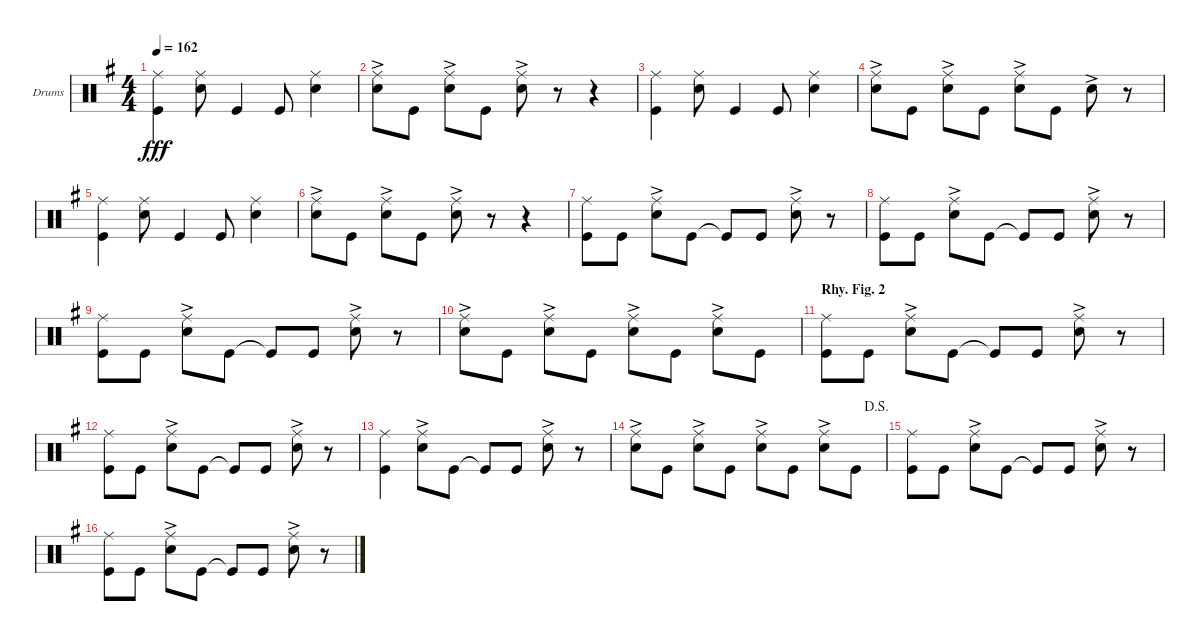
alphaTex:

\defaultSystemsLayout 4
\bracketExtendMode groupsimilarinstruments
\firstSystemTrackNameOrientation horizontal
\otherSystemsTrackNameOrientation horizontal
\track ("Drumkit" "Drums") {instrument percussion}
\staff {score}
\articulation defaults
\ts (4 4)
\tempo 162
\clef neutral
\scale
0.333333
\ks g
("Kick (hit)" "Ride (middle)").4{dy fff} ("Snare (hit) 2" "Ride (middle)").8 "Kick (hit)".4 "Kick (hit)".8 ("Snare (hit) 2" "Ride (middle)").4 |
\scale
0.333333 ("Snare (hit) 2"{ac} "Ride (middle)").8 "Kick (hit)".8 ("Snare (hit) 2"{ac} "Ride (middle)").8 "Kick (hit)".8 ("Snare (hit) 2"{ac} "Ride (middle)").8 r.8 r.4 |
\scale
0.333333 ("Kick (hit)" "Ride (middle)").4 ("Snare (hit) 2" "Ride (middle)").8 "Kick (hit)".4 "Kick (hit)".8 ("Snare (hit) 2" "Ride (middle)").4 |
\scale
0.333333 ("Snare (hit) 2"{ac} "Ride (middle)").8 "Kick (hit)".8 ("Snare (hit) 2"{ac} "Ride (middle)").8 "Kick (hit)".8 ("Snare (hit) 2"{ac} "Ride (middle)").8 "Kick (hit)".8 "Snare (hit) 2"{ac}.8 r.8 |
\scale
0.333333 ("Kick (hit)" "Ride (middle)").4 ("Snare (hit) 2" "Ride (middle)").8 "Kick (hit)".4 "Kick (hit)".8 ("Snare (hit) 2" "Ride (middle)").4 |
\scale
0.333333 ("Snare (hit) 2"{ac} "Ride (middle)").8 "Kick (hit)".8 ("Snare (hit) 2"{ac} "Ride (middle)").8 "Kick (hit)".8 ("Snare (hit) 2"{ac} "Ride (middle)").8 r.8 r.4 |
\scale
0.333333 ("Kick (hit)" "Ride (middle)").8 "Kick (hit)".8 ("Snare (hit) 2"{ac} "Ride (middle)").8 "Kick (hit)".8 "Kick (hit)"{t}.8 "Kick (hit)".8 ("Snare (hit) 2"{ac} "Ride (middle)").8 r.8 |
\scale
0.333333 ("Kick (hit)" "Ride (middle)").8 "Kick (hit)".8 ("Snare (hit) 2"{ac} "Ride (middle)").8 "Kick (hit)".8 "Kick (hit)"{t}.8 "Kick (hit)".8 ("Snare (hit) 2"{ac} "Ride (middle)").8 r.8 |
\scale
0.333333 ("Kick (hit)" "Ride (middle)").8 "Kick (hit)".8 ("Snare (hit) 2"{ac} "Ride (middle)").8 "Kick (hit)".8 "Kick (hit)"{t}.8 "Kick (hit)".8 ("Snare (hit) 2"{ac} "Ride (middle)").8 r.8 |
\scale
0.333333 ("Snare (hit) 2"{ac} "Ride (middle)").8 "Kick (hit)".8 ("Snare (hit) 2"{ac} "Ride (middle)").8 "Kick (hit)".8 ("Snare (hit) 2"{ac} "Ride (middle)").8 "Kick (hit)".8 ("Snare (hit) 2"{ac} "Ride (middle)").8 "Kick (hit)".8 |
\section ("" "Rhy. Fig. 2")
\scale
0.333333 ("Kick (hit)" "Ride (middle)").8 "Kick (hit)".8 ("Snare (hit) 2"{ac} "Ride (middle)").8 "Kick (hit)".8 "Kick (hit)"{t}.8 "Kick (hit)".8 ("Snare (hit) 2"{ac} "Ride (middle)").8 r.8 |
\scale
0.333333 ("Kick (hit)" "Ride (middle)").8 "Kick (hit)".8 ("Snare (hit) 2"{ac} "Ride (middle)").8 "Kick (hit)".8 "Kick (hit)"{t}.8 "Kick (hit)".8 ("Snare (hit) 2"{ac} "Ride (middle)").8 r.8 |
("Kick (hit)" "Ride (middle)").4 ("Snare (hit) 2"{ac} "Ride (middle)").8 "Kick (hit)".8 "Kick (hit)"{t}.8 "Kick (hit)".8 ("Snare (hit) 2"{ac} "Ride (middle)").8 r.8 |
\jump dalsegno
("Snare (hit) 2"{ac} "Ride (middle)").8 "Kick (hit)".8 ("Snare (hit) 2"{ac} "Ride (middle)").8 "Kick (hit)".8 ("Snare (hit) 2"{ac} "Ride (middle)").8 "Kick (hit)".8 ("Snare (hit) 2"{ac} "Ride (middle)").8 "Kick (hit)".8 |
("Kick (hit)" "Ride (middle)").8 "Kick (hit)".8 ("Snare (hit) 2"{ac} "Ride (middle)").8 "Kick (hit)".8 "Kick (hit)"{t}.8 "Kick (hit)".8 ("Snare (hit) 2"{ac} "Ride (middle)").8 r.8 |
("Kick (hit)" "Ride (middle)").8 "Kick (hit)".8 ("Snare (hit) 2"{ac} "Ride (middle)").8 "Kick (hit)".8 "Kick (hit)"{t}.8 "Kick (hit)".8 ("Snare (hit) 2"{ac} "Ride (middle)").8 r.8
